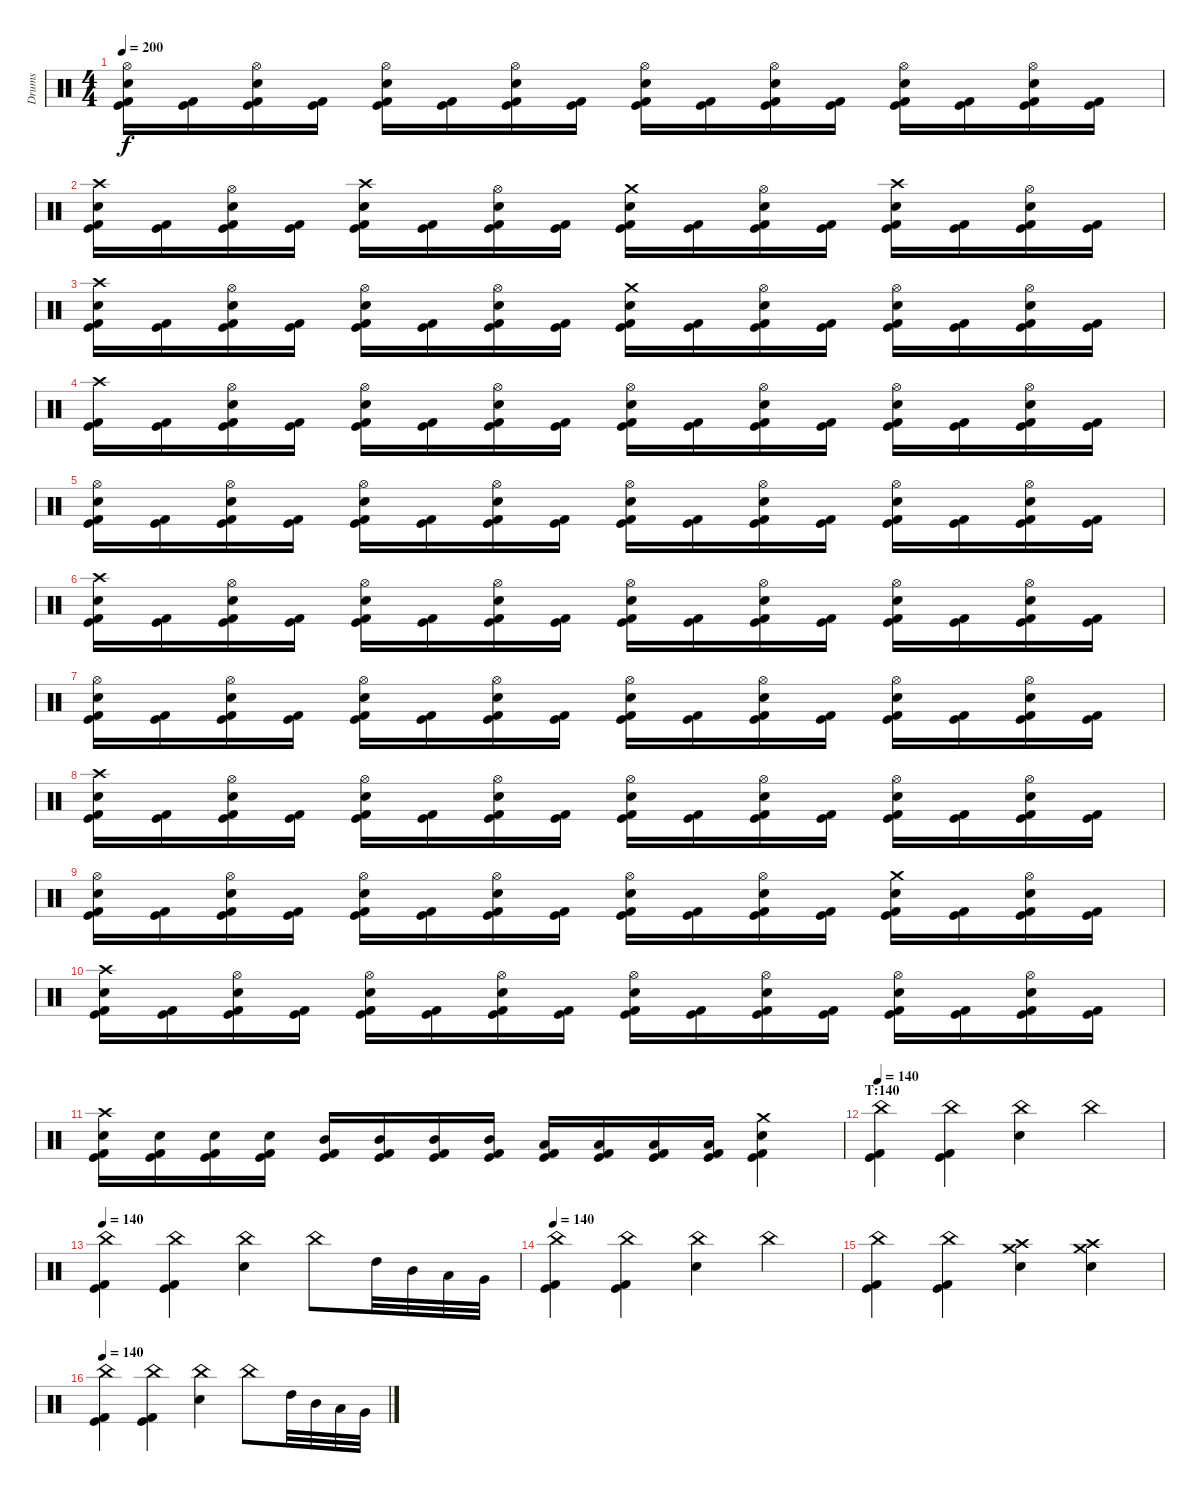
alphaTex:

\track ("Drums" "Drums") {instrument percussion}
\staff {score}
\articulation defaults
\ts (4 4)
\tempo 200
\clef neutral
\ks c
("Hi-Hat (open)" "Electric Snare (hit)" "Kick (hit)" "Kick (hit) 2").16{dy f} ("Kick (hit)" "Kick (hit) 2").16 ("Hi-Hat (open)" "Electric Snare (hit)" "Kick (hit)" "Kick (hit) 2").16 ("Kick (hit)" "Kick (hit) 2").16 ("Hi-Hat (open)" "Electric Snare (hit)" "Kick (hit)" "Kick (hit) 2").16 ("Kick (hit)" "Kick (hit) 2").16 ("Hi-Hat (open)" "Electric Snare (hit)" "Kick (hit)" "Kick (hit) 2").16 ("Kick (hit)" "Kick (hit) 2").16 ("Hi-Hat (open)" "Electric Snare (hit)" "Kick (hit)" "Kick (hit) 2").16 ("Kick (hit)" "Kick (hit) 2").16 ("Hi-Hat (open)" "Electric Snare (hit)" "Kick (hit)" "Kick (hit) 2").16 ("Kick (hit)" "Kick (hit) 2").16 ("Hi-Hat (open)" "Electric Snare (hit)" "Kick (hit)" "Kick (hit) 2").16 ("Kick (hit)" "Kick (hit) 2").16 ("Hi-Hat (open)" "Electric Snare (hit)" "Kick (hit)" "Kick (hit) 2").16 ("Kick (hit)" "Kick (hit) 2").16 |
("Crash high (hit)" "Electric Snare (hit)" "Kick (hit)" "Kick (hit) 2").16 ("Kick (hit)" "Kick (hit) 2").16 ("Hi-Hat (open)" "Electric Snare (hit)" "Kick (hit)" "Kick (hit) 2").16 ("Kick (hit)" "Kick (hit) 2").16 ("Crash high (hit)" "Electric Snare (hit)" "Kick (hit)" "Kick (hit) 2").16 ("Kick (hit)" "Kick (hit) 2").16 ("Hi-Hat (open)" "Electric Snare (hit)" "Kick (hit)" "Kick (hit) 2").16 ("Kick (hit)" "Kick (hit) 2").16 ("Crash medium (hit)" "Electric Snare (hit)" "Kick (hit)" "Kick (hit) 2").16 ("Kick (hit)" "Kick (hit) 2").16 ("Hi-Hat (open)" "Electric Snare (hit)" "Kick (hit)" "Kick (hit) 2").16 ("Kick (hit)" "Kick (hit) 2").16 ("Crash high (hit)" "Electric Snare (hit)" "Kick (hit)" "Kick (hit) 2").16 ("Kick (hit)" "Kick (hit) 2").16 ("Hi-Hat (open)" "Electric Snare (hit)" "Kick (hit)" "Kick (hit) 2").16 ("Kick (hit)" "Kick (hit) 2").16 |
("Crash high (hit)" "Electric Snare (hit)" "Kick (hit)" "Kick (hit) 2").16 ("Kick (hit)" "Kick (hit) 2").16 ("Hi-Hat (open)" "Electric Snare (hit)" "Kick (hit)" "Kick (hit) 2").16 ("Kick (hit)" "Kick (hit) 2").16 ("Hi-Hat (open)" "Electric Snare (hit)" "Kick (hit)" "Kick (hit) 2").16 ("Kick (hit)" "Kick (hit) 2").16 ("Hi-Hat (open)" "Electric Snare (hit)" "Kick (hit)" "Kick (hit) 2").16 ("Kick (hit)" "Kick (hit) 2").16 ("Crash medium (hit)" "Electric Snare (hit)" "Kick (hit)" "Kick (hit) 2").16 ("Kick (hit)" "Kick (hit) 2").16 ("Hi-Hat (open)" "Electric Snare (hit)" "Kick (hit)" "Kick (hit) 2").16 ("Kick (hit)" "Kick (hit) 2").16 ("Hi-Hat (open)" "Electric Snare (hit)" "Kick (hit)" "Kick (hit) 2").16 ("Kick (hit)" "Kick (hit) 2").16 ("Hi-Hat (open)" "Electric Snare (hit)" "Kick (hit)" "Kick (hit) 2").16 ("Kick (hit)" "Kick (hit) 2").16 |
("Crash high (hit)" "Kick (hit)" "Kick (hit) 2").16 ("Kick (hit)" "Kick (hit) 2").16 ("Hi-Hat (open)" "Electric Snare (hit)" "Kick (hit)" "Kick (hit) 2").16 ("Kick (hit)" "Kick (hit) 2").16 ("Hi-Hat (open)" "Electric Snare (hit)" "Kick (hit)" "Kick (hit) 2").16 ("Kick (hit)" "Kick (hit) 2").16 ("Hi-Hat (open)" "Electric Snare (hit)" "Kick (hit)" "Kick (hit) 2").16 ("Kick (hit)" "Kick (hit) 2").16 ("Hi-Hat (open)" "Electric Snare (hit)" "Kick (hit)" "Kick (hit) 2").16 ("Kick (hit)" "Kick (hit) 2").16 ("Hi-Hat (open)" "Electric Snare (hit)" "Kick (hit)" "Kick (hit) 2").16 ("Kick (hit)" "Kick (hit) 2").16 ("Hi-Hat (open)" "Electric Snare (hit)" "Kick (hit)" "Kick (hit) 2").16 ("Kick (hit)" "Kick (hit) 2").16 ("Hi-Hat (open)" "Electric Snare (hit)" "Kick (hit)" "Kick (hit) 2").16 ("Kick (hit)" "Kick (hit) 2").16 |
("Hi-Hat (open)" "Electric Snare (hit)" "Kick (hit)" "Kick (hit) 2").16 ("Kick (hit)" "Kick (hit) 2").16 ("Hi-Hat (open)" "Electric Snare (hit)" "Kick (hit)" "Kick (hit) 2").16 ("Kick (hit)" "Kick (hit) 2").16 ("Hi-Hat (open)" "Electric Snare (hit)" "Kick (hit)" "Kick (hit) 2").16 ("Kick (hit)" "Kick (hit) 2").16 ("Hi-Hat (open)" "Electric Snare (hit)" "Kick (hit)" "Kick (hit) 2").16 ("Kick (hit)" "Kick (hit) 2").16 ("Hi-Hat (open)" "Electric Snare (hit)" "Kick (hit)" "Kick (hit) 2").16 ("Kick (hit)" "Kick (hit) 2").16 ("Hi-Hat (open)" "Electric Snare (hit)" "Kick (hit)" "Kick (hit) 2").16 ("Kick (hit)" "Kick (hit) 2").16 ("Hi-Hat (open)" "Electric Snare (hit)" "Kick (hit)" "Kick (hit) 2").16 ("Kick (hit)" "Kick (hit) 2").16 ("Hi-Hat (open)" "Electric Snare (hit)" "Kick (hit)" "Kick (hit) 2").16 ("Kick (hit)" "Kick (hit) 2").16 |
("Crash high (hit)" "Electric Snare (hit)" "Kick (hit)" "Kick (hit) 2").16 ("Kick (hit)" "Kick (hit) 2").16 ("Hi-Hat (open)" "Electric Snare (hit)" "Kick (hit)" "Kick (hit) 2").16 ("Kick (hit)" "Kick (hit) 2").16 ("Hi-Hat (open)" "Electric Snare (hit)" "Kick (hit)" "Kick (hit) 2").16 ("Kick (hit)" "Kick (hit) 2").16 ("Hi-Hat (open)" "Electric Snare (hit)" "Kick (hit)" "Kick (hit) 2").16 ("Kick (hit)" "Kick (hit) 2").16 ("Hi-Hat (open)" "Electric Snare (hit)" "Kick (hit)" "Kick (hit) 2").16 ("Kick (hit)" "Kick (hit) 2").16 ("Hi-Hat (open)" "Electric Snare (hit)" "Kick (hit)" "Kick (hit) 2").16 ("Kick (hit)" "Kick (hit) 2").16 ("Hi-Hat (open)" "Electric Snare (hit)" "Kick (hit)" "Kick (hit) 2").16 ("Kick (hit)" "Kick (hit) 2").16 ("Hi-Hat (open)" "Electric Snare (hit)" "Kick (hit)" "Kick (hit) 2").16 ("Kick (hit)" "Kick (hit) 2").16 |
("Hi-Hat (open)" "Electric Snare (hit)" "Kick (hit)" "Kick (hit) 2").16 ("Kick (hit)" "Kick (hit) 2").16 ("Hi-Hat (open)" "Electric Snare (hit)" "Kick (hit)" "Kick (hit) 2").16 ("Kick (hit)" "Kick (hit) 2").16 ("Hi-Hat (open)" "Electric Snare (hit)" "Kick (hit)" "Kick (hit) 2").16 ("Kick (hit)" "Kick (hit) 2").16 ("Hi-Hat (open)" "Electric Snare (hit)" "Kick (hit)" "Kick (hit) 2").16 ("Kick (hit)" "Kick (hit) 2").16 ("Hi-Hat (open)" "Electric Snare (hit)" "Kick (hit)" "Kick (hit) 2").16 ("Kick (hit)" "Kick (hit) 2").16 ("Hi-Hat (open)" "Electric Snare (hit)" "Kick (hit)" "Kick (hit) 2").16 ("Kick (hit)" "Kick (hit) 2").16 ("Hi-Hat (open)" "Electric Snare (hit)" "Kick (hit)" "Kick (hit) 2").16 ("Kick (hit)" "Kick (hit) 2").16 ("Hi-Hat (open)" "Electric Snare (hit)" "Kick (hit)" "Kick (hit) 2").16 ("Kick (hit)" "Kick (hit) 2").16 |
("Crash high (hit)" "Electric Snare (hit)" "Kick (hit)" "Kick (hit) 2").16 ("Kick (hit)" "Kick (hit) 2").16 ("Hi-Hat (open)" "Electric Snare (hit)" "Kick (hit)" "Kick (hit) 2").16 ("Kick (hit)" "Kick (hit) 2").16 ("Hi-Hat (open)" "Electric Snare (hit)" "Kick (hit)" "Kick (hit) 2").16 ("Kick (hit)" "Kick (hit) 2").16 ("Hi-Hat (open)" "Electric Snare (hit)" "Kick (hit)" "Kick (hit) 2").16 ("Kick (hit)" "Kick (hit) 2").16 ("Hi-Hat (open)" "Electric Snare (hit)" "Kick (hit)" "Kick (hit) 2").16 ("Kick (hit)" "Kick (hit) 2").16 ("Hi-Hat (open)" "Electric Snare (hit)" "Kick (hit)" "Kick (hit) 2").16 ("Kick (hit)" "Kick (hit) 2").16 ("Hi-Hat (open)" "Electric Snare (hit)" "Kick (hit)" "Kick (hit) 2").16 ("Kick (hit)" "Kick (hit) 2").16 ("Hi-Hat (open)" "Electric Snare (hit)" "Kick (hit)" "Kick (hit) 2").16 ("Kick (hit)" "Kick (hit) 2").16 |
("Hi-Hat (open)" "Electric Snare (hit)" "Kick (hit)" "Kick (hit) 2").16 ("Kick (hit)" "Kick (hit) 2").16 ("Hi-Hat (open)" "Electric Snare (hit)" "Kick (hit)" "Kick (hit) 2").16 ("Kick (hit)" "Kick (hit) 2").16 ("Hi-Hat (open)" "Electric Snare (hit)" "Kick (hit)" "Kick (hit) 2").16 ("Kick (hit)" "Kick (hit) 2").16 ("Hi-Hat (open)" "Electric Snare (hit)" "Kick (hit)" "Kick (hit) 2").16 ("Kick (hit)" "Kick (hit) 2").16 ("Hi-Hat (open)" "Electric Snare (hit)" "Kick (hit)" "Kick (hit) 2").16 ("Kick (hit)" "Kick (hit) 2").16 ("Hi-Hat (open)" "Electric Snare (hit)" "Kick (hit)" "Kick (hit) 2").16 ("Kick (hit)" "Kick (hit) 2").16 ("Crash medium (hit)" "Electric Snare (hit)" "Kick (hit)" "Kick (hit) 2").16 ("Kick (hit)" "Kick (hit) 2").16 ("Hi-Hat (open)" "Electric Snare (hit)" "Kick (hit)" "Kick (hit) 2").16 ("Kick (hit)" "Kick (hit) 2").16 |
("Crash high (hit)" "Electric Snare (hit)" "Kick (hit)" "Kick (hit) 2").16 ("Kick (hit)" "Kick (hit) 2").16 ("Hi-Hat (open)" "Electric Snare (hit)" "Kick (hit)" "Kick (hit) 2").16 ("Kick (hit)" "Kick (hit) 2").16 ("Hi-Hat (open)" "Electric Snare (hit)" "Kick (hit)" "Kick (hit) 2").16 ("Kick (hit)" "Kick (hit) 2").16 ("Hi-Hat (open)" "Electric Snare (hit)" "Kick (hit)" "Kick (hit) 2").16 ("Kick (hit)" "Kick (hit) 2").16 ("Hi-Hat (open)" "Electric Snare (hit)" "Kick (hit)" "Kick (hit) 2").16 ("Kick (hit)" "Kick (hit) 2").16 ("Hi-Hat (open)" "Electric Snare (hit)" "Kick (hit)" "Kick (hit) 2").16 ("Kick (hit)" "Kick (hit) 2").16 ("Hi-Hat (open)" "Electric Snare (hit)" "Kick (hit)" "Kick (hit) 2").16 ("Kick (hit)" "Kick (hit) 2").16 ("Hi-Hat (open)" "Electric Snare (hit)" "Kick (hit)" "Kick (hit) 2").16 ("Kick (hit)" "Kick (hit) 2").16 |
("Crash high (hit)" "Electric Snare (hit)" "Kick (hit)" "Kick (hit) 2").16 ("Electric Snare (hit)" "Kick (hit)" "Kick (hit) 2").16 ("Electric Snare (hit)" "Kick (hit)" "Kick (hit) 2").16 ("Electric Snare (hit)" "Kick (hit)" "Kick (hit) 2").16 ("Mid Tom (hit)" "Kick (hit)" "Kick (hit) 2").16 ("Mid Tom (hit)" "Kick (hit)" "Kick (hit) 2").16 ("Mid Tom (hit)" "Kick (hit)" "Kick (hit) 2").16 ("Mid Tom (hit)" "Kick (hit)" "Kick (hit) 2").16 ("Low Tom (hit)" "Kick (hit)" "Kick (hit) 2").16 ("Low Tom (hit)" "Kick (hit)" "Kick (hit) 2").16 ("Low Tom (hit)" "Kick (hit)" "Kick (hit) 2").16 ("Low Tom (hit)" "Kick (hit)" "Kick (hit) 2").16 ("Crash medium (hit)" "Electric Snare (hit)" "Kick (hit)" "Kick (hit) 2").4 |
\section ("" "T:140")
\tempo 140
("China (hit)" "Kick (hit)" "Kick (hit) 2").4 ("China (hit)" "Kick (hit)" "Kick (hit) 2").4 ("China (hit)" "Electric Snare (hit)").4 "China (hit)".4 |
\tempo 140
("China (hit)" "Kick (hit)" "Kick (hit) 2").4 ("China (hit)" "Kick (hit)" "Kick (hit) 2").4 ("China (hit)" "Electric Snare (hit)").4 "China (hit)".8 "High Tom (hit)".32 "Mid Tom (hit)".32 "Low Tom (hit)".32 "Very Low Tom (hit)".32 |
\tempo 140
("China (hit)" "Kick (hit)" "Kick (hit) 2").4 ("China (hit)" "Kick (hit)" "Kick (hit) 2").4 ("China (hit)" "Electric Snare (hit)").4 "China (hit)".4 |
("China (hit)" "Kick (hit)" "Kick (hit) 2").4 ("China (hit)" "Kick (hit)" "Kick (hit) 2").4 ("Crash high (hit)" "Crash medium (hit)" "Electric Snare (hit)").4 ("Crash high (hit)" "Crash medium (hit)" "Electric Snare (hit)").4 |
\tempo 140
("China (hit)" "Kick (hit)" "Kick (hit) 2").4 ("China (hit)" "Kick (hit)" "Kick (hit) 2").4 ("China (hit)" "Electric Snare (hit)").4 "China (hit)".8 "High Tom (hit)".32 "Mid Tom (hit)".32 "Low Tom (hit)".32 "Very Low Tom (hit)".32
